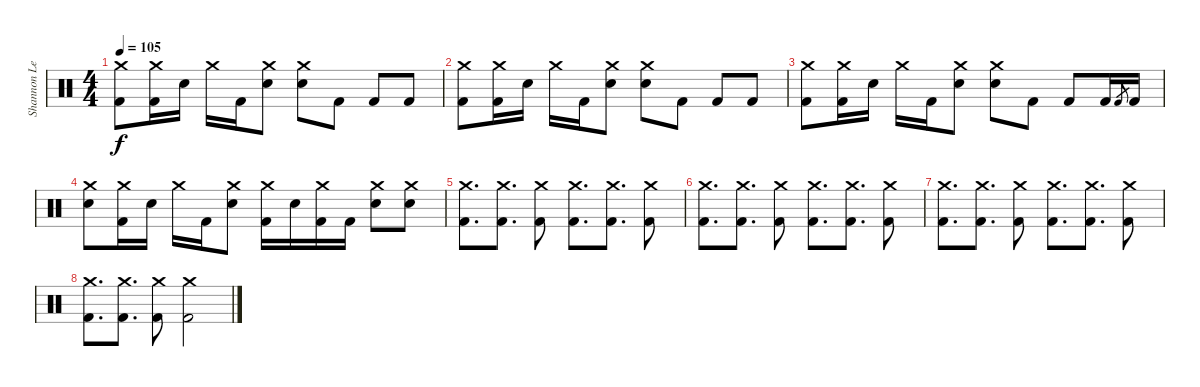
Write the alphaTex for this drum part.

\track ("Shannon Leto - Drums" "Shannon Le") {instrument percussion}
\staff {score}
\articulation defaults
\ts (4 4)
\tempo 105
\clef neutral
\ks c
("Crash medium (hit)" "Kick (hit) 2").8{dy f} ("Crash medium (hit)" "Kick (hit) 2").16 "Electric Snare (hit)".16 "Crash medium (hit)".16 "Kick (hit) 2".16 ("Crash medium (hit)" "Electric Snare (hit)").8 ("Crash medium (hit)" "Electric Snare (hit)").8 "Kick (hit) 2".8 "Kick (hit) 2".8 "Kick (hit) 2".8 |
("Crash medium (hit)" "Kick (hit) 2").8 ("Crash medium (hit)" "Kick (hit) 2").16 "Electric Snare (hit)".16 "Crash medium (hit)".16 "Kick (hit) 2".16 ("Crash medium (hit)" "Electric Snare (hit)").8 ("Crash medium (hit)" "Electric Snare (hit)").8 "Kick (hit) 2".8 "Kick (hit) 2".8 "Kick (hit) 2".8 |
("Crash medium (hit)" "Kick (hit) 2").8 ("Crash medium (hit)" "Kick (hit) 2").16 "Electric Snare (hit)".16 "Crash medium (hit)".16 "Kick (hit) 2".16 ("Crash medium (hit)" "Electric Snare (hit)").8 ("Crash medium (hit)" "Electric Snare (hit)").8 "Kick (hit) 2".8 "Kick (hit) 2".8 "Kick (hit) 2".16 "Kick (hit) 2".8{gr} "Kick (hit) 2".16 |
("Crash medium (hit)" "Electric Snare (hit)").8 ("Crash medium (hit)" "Kick (hit) 2").16 "Electric Snare (hit)".16 "Crash medium (hit)".16 "Kick (hit) 2".16 ("Crash medium (hit)" "Electric Snare (hit)").8 ("Crash medium (hit)" "Kick (hit) 2").16 "Electric Snare (hit)".16 ("Crash medium (hit)" "Kick (hit) 2").16 "Kick (hit) 2".16 ("Crash medium (hit)" "Electric Snare (hit)").8 ("Crash medium (hit)" "Electric Snare (hit)").8 |
("Crash medium (hit)" "Kick (hit) 2").8{d} ("Crash medium (hit)" "Kick (hit) 2").8{d} ("Crash medium (hit)" "Kick (hit) 2").8 ("Crash medium (hit)" "Kick (hit) 2").8{d} ("Crash medium (hit)" "Kick (hit) 2").8{d} ("Crash medium (hit)" "Kick (hit) 2").8 |
("Crash medium (hit)" "Kick (hit) 2").8{d} ("Crash medium (hit)" "Kick (hit) 2").8{d} ("Crash medium (hit)" "Kick (hit) 2").8 ("Crash medium (hit)" "Kick (hit) 2").8{d} ("Crash medium (hit)" "Kick (hit) 2").8{d} ("Crash medium (hit)" "Kick (hit) 2").8 |
("Crash medium (hit)" "Kick (hit) 2").8{d} ("Crash medium (hit)" "Kick (hit) 2").8{d} ("Crash medium (hit)" "Kick (hit) 2").8 ("Crash medium (hit)" "Kick (hit) 2").8{d} ("Crash medium (hit)" "Kick (hit) 2").8{d} ("Crash medium (hit)" "Kick (hit) 2").8 |
("Crash medium (hit)" "Kick (hit) 2").8{d} ("Crash medium (hit)" "Kick (hit) 2").8{d} ("Crash medium (hit)" "Kick (hit) 2").8 ("Crash medium (hit)" "Kick (hit) 2").2
